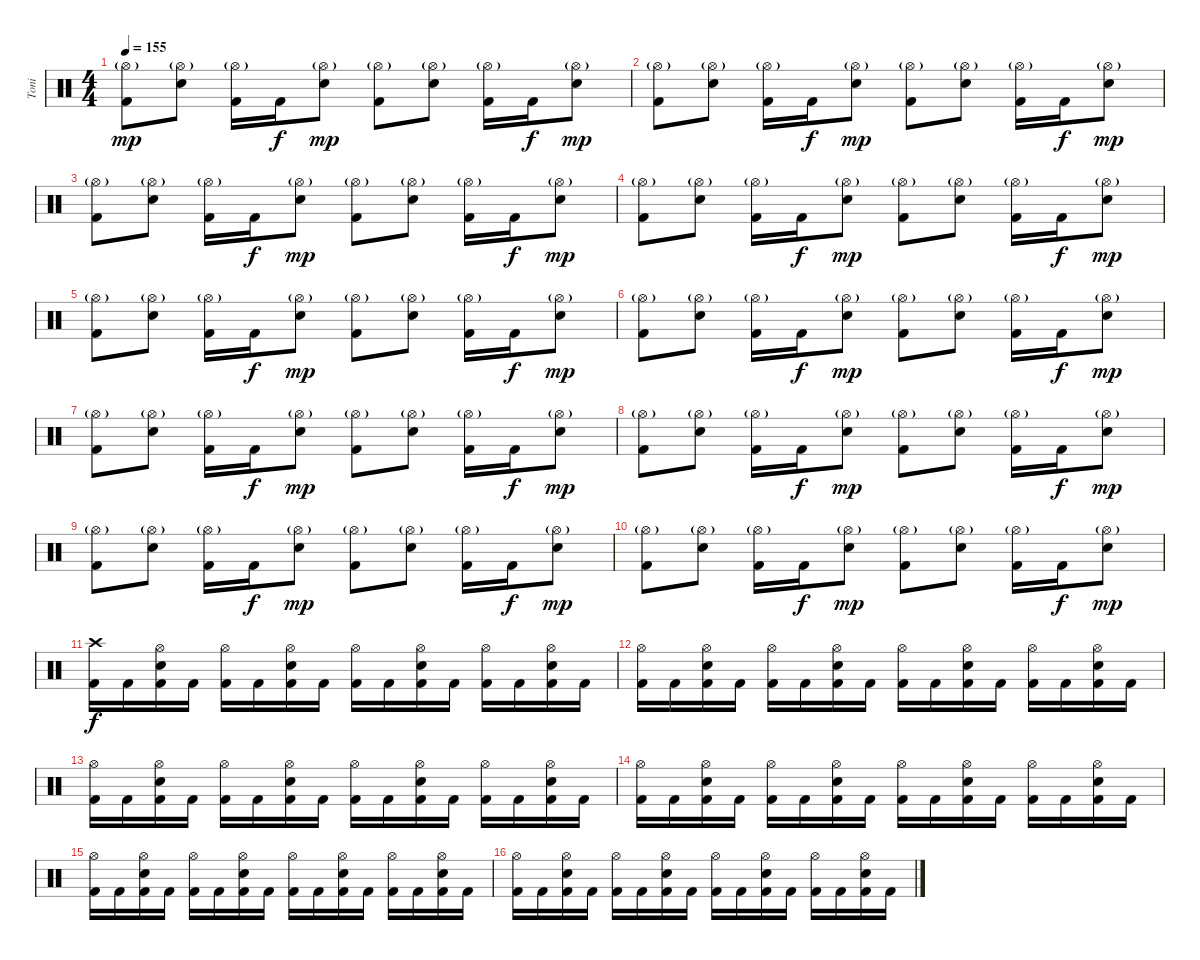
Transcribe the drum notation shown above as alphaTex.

\track ("Toni" "Toni") {instrument percussion}
\staff {score}
\articulation defaults
\ts (4 4)
\tempo 155
\clef neutral
\ks c
("Hi-Hat (open)"{g} "Kick (hit) 2").8{dy mp} ("Hi-Hat (open)"{g} "Electric Snare (hit)").8 ("Hi-Hat (open)"{g} "Kick (hit) 2").16 "Kick (hit) 2".16{dy f} ("Hi-Hat (open)"{g} "Electric Snare (hit)").8{dy mp} ("Hi-Hat (open)"{g} "Kick (hit) 2").8 ("Hi-Hat (open)"{g} "Electric Snare (hit)").8 ("Hi-Hat (open)"{g} "Kick (hit) 2").16 "Kick (hit) 2".16{dy f} ("Hi-Hat (open)"{g} "Electric Snare (hit)").8{dy mp} |
("Hi-Hat (open)"{g} "Kick (hit) 2").8 ("Hi-Hat (open)"{g} "Electric Snare (hit)").8 ("Hi-Hat (open)"{g} "Kick (hit) 2").16 "Kick (hit) 2".16{dy f} ("Hi-Hat (open)"{g} "Electric Snare (hit)").8{dy mp} ("Hi-Hat (open)"{g} "Kick (hit) 2").8 ("Hi-Hat (open)"{g} "Electric Snare (hit)").8 ("Hi-Hat (open)"{g} "Kick (hit) 2").16 "Kick (hit) 2".16{dy f} ("Hi-Hat (open)"{g} "Electric Snare (hit)").8{dy mp} |
("Hi-Hat (open)"{g} "Kick (hit) 2").8 ("Hi-Hat (open)"{g} "Electric Snare (hit)").8 ("Hi-Hat (open)"{g} "Kick (hit) 2").16 "Kick (hit) 2".16{dy f} ("Hi-Hat (open)"{g} "Electric Snare (hit)").8{dy mp} ("Hi-Hat (open)"{g} "Kick (hit) 2").8 ("Hi-Hat (open)"{g} "Electric Snare (hit)").8 ("Hi-Hat (open)"{g} "Kick (hit) 2").16 "Kick (hit) 2".16{dy f} ("Hi-Hat (open)"{g} "Electric Snare (hit)").8{dy mp} |
("Hi-Hat (open)"{g} "Kick (hit) 2").8 ("Hi-Hat (open)"{g} "Electric Snare (hit)").8 ("Hi-Hat (open)"{g} "Kick (hit) 2").16 "Kick (hit) 2".16{dy f} ("Hi-Hat (open)"{g} "Electric Snare (hit)").8{dy mp} ("Hi-Hat (open)"{g} "Kick (hit) 2").8 ("Hi-Hat (open)"{g} "Electric Snare (hit)").8 ("Hi-Hat (open)"{g} "Kick (hit) 2").16 "Kick (hit) 2".16{dy f} ("Hi-Hat (open)"{g} "Electric Snare (hit)").8{dy mp} |
("Hi-Hat (open)"{g} "Kick (hit) 2").8 ("Hi-Hat (open)"{g} "Electric Snare (hit)").8 ("Hi-Hat (open)"{g} "Kick (hit) 2").16 "Kick (hit) 2".16{dy f} ("Hi-Hat (open)"{g} "Electric Snare (hit)").8{dy mp} ("Hi-Hat (open)"{g} "Kick (hit) 2").8 ("Hi-Hat (open)"{g} "Electric Snare (hit)").8 ("Hi-Hat (open)"{g} "Kick (hit) 2").16 "Kick (hit) 2".16{dy f} ("Hi-Hat (open)"{g} "Electric Snare (hit)").8{dy mp} |
("Hi-Hat (open)"{g} "Kick (hit) 2").8 ("Hi-Hat (open)"{g} "Electric Snare (hit)").8 ("Hi-Hat (open)"{g} "Kick (hit) 2").16 "Kick (hit) 2".16{dy f} ("Hi-Hat (open)"{g} "Electric Snare (hit)").8{dy mp} ("Hi-Hat (open)"{g} "Kick (hit) 2").8 ("Hi-Hat (open)"{g} "Electric Snare (hit)").8 ("Hi-Hat (open)"{g} "Kick (hit) 2").16 "Kick (hit) 2".16{dy f} ("Hi-Hat (open)"{g} "Electric Snare (hit)").8{dy mp} |
("Hi-Hat (open)"{g} "Kick (hit) 2").8 ("Hi-Hat (open)"{g} "Electric Snare (hit)").8 ("Hi-Hat (open)"{g} "Kick (hit) 2").16 "Kick (hit) 2".16{dy f} ("Hi-Hat (open)"{g} "Electric Snare (hit)").8{dy mp} ("Hi-Hat (open)"{g} "Kick (hit) 2").8 ("Hi-Hat (open)"{g} "Electric Snare (hit)").8 ("Hi-Hat (open)"{g} "Kick (hit) 2").16 "Kick (hit) 2".16{dy f} ("Hi-Hat (open)"{g} "Electric Snare (hit)").8{dy mp} |
("Hi-Hat (open)"{g} "Kick (hit) 2").8 ("Hi-Hat (open)"{g} "Electric Snare (hit)").8 ("Hi-Hat (open)"{g} "Kick (hit) 2").16 "Kick (hit) 2".16{dy f} ("Hi-Hat (open)"{g} "Electric Snare (hit)").8{dy mp} ("Hi-Hat (open)"{g} "Kick (hit) 2").8 ("Hi-Hat (open)"{g} "Electric Snare (hit)").8 ("Hi-Hat (open)"{g} "Kick (hit) 2").16 "Kick (hit) 2".16{dy f} ("Hi-Hat (open)"{g} "Electric Snare (hit)").8{dy mp} |
("Hi-Hat (open)"{g} "Kick (hit) 2").8 ("Hi-Hat (open)"{g} "Electric Snare (hit)").8 ("Hi-Hat (open)"{g} "Kick (hit) 2").16 "Kick (hit) 2".16{dy f} ("Hi-Hat (open)"{g} "Electric Snare (hit)").8{dy mp} ("Hi-Hat (open)"{g} "Kick (hit) 2").8 ("Hi-Hat (open)"{g} "Electric Snare (hit)").8 ("Hi-Hat (open)"{g} "Kick (hit) 2").16 "Kick (hit) 2".16{dy f} ("Hi-Hat (open)"{g} "Electric Snare (hit)").8{dy mp} |
("Hi-Hat (open)"{g} "Kick (hit) 2").8 ("Hi-Hat (open)"{g} "Electric Snare (hit)").8 ("Hi-Hat (open)"{g} "Kick (hit) 2").16 "Kick (hit) 2".16{dy f} ("Hi-Hat (open)"{g} "Electric Snare (hit)").8{dy mp} ("Hi-Hat (open)"{g} "Kick (hit) 2").8 ("Hi-Hat (open)"{g} "Electric Snare (hit)").8 ("Hi-Hat (open)"{g} "Kick (hit) 2").16 "Kick (hit) 2".16{dy f} ("Hi-Hat (open)"{g} "Electric Snare (hit)").8{dy mp} |
("Crash high (hit)" "Kick (hit) 2").16{dy f} "Kick (hit) 2".16 ("Hi-Hat (open)" "Electric Snare (hit)" "Kick (hit) 2").16 "Kick (hit) 2".16 ("Hi-Hat (open)" "Kick (hit) 2").16 "Kick (hit) 2".16 ("Hi-Hat (open)" "Electric Snare (hit)" "Kick (hit) 2").16 "Kick (hit) 2".16 ("Hi-Hat (open)" "Kick (hit) 2").16 "Kick (hit) 2".16 ("Hi-Hat (open)" "Electric Snare (hit)" "Kick (hit) 2").16 "Kick (hit) 2".16 ("Hi-Hat (open)" "Kick (hit) 2").16 "Kick (hit) 2".16 ("Hi-Hat (open)" "Electric Snare (hit)" "Kick (hit) 2").16 "Kick (hit) 2".16 |
("Hi-Hat (open)" "Kick (hit) 2").16 "Kick (hit) 2".16 ("Hi-Hat (open)" "Electric Snare (hit)" "Kick (hit) 2").16 "Kick (hit) 2".16 ("Hi-Hat (open)" "Kick (hit) 2").16 "Kick (hit) 2".16 ("Hi-Hat (open)" "Electric Snare (hit)" "Kick (hit) 2").16 "Kick (hit) 2".16 ("Hi-Hat (open)" "Kick (hit) 2").16 "Kick (hit) 2".16 ("Hi-Hat (open)" "Electric Snare (hit)" "Kick (hit) 2").16 "Kick (hit) 2".16 ("Hi-Hat (open)" "Kick (hit) 2").16 "Kick (hit) 2".16 ("Hi-Hat (open)" "Electric Snare (hit)" "Kick (hit) 2").16 "Kick (hit) 2".16 |
("Hi-Hat (open)" "Kick (hit) 2").16 "Kick (hit) 2".16 ("Hi-Hat (open)" "Electric Snare (hit)" "Kick (hit) 2").16 "Kick (hit) 2".16 ("Hi-Hat (open)" "Kick (hit) 2").16 "Kick (hit) 2".16 ("Hi-Hat (open)" "Electric Snare (hit)" "Kick (hit) 2").16 "Kick (hit) 2".16 ("Hi-Hat (open)" "Kick (hit) 2").16 "Kick (hit) 2".16 ("Hi-Hat (open)" "Electric Snare (hit)" "Kick (hit) 2").16 "Kick (hit) 2".16 ("Hi-Hat (open)" "Kick (hit) 2").16 "Kick (hit) 2".16 ("Hi-Hat (open)" "Electric Snare (hit)" "Kick (hit) 2").16 "Kick (hit) 2".16 |
("Hi-Hat (open)" "Kick (hit) 2").16 "Kick (hit) 2".16 ("Hi-Hat (open)" "Electric Snare (hit)" "Kick (hit) 2").16 "Kick (hit) 2".16 ("Hi-Hat (open)" "Kick (hit) 2").16 "Kick (hit) 2".16 ("Hi-Hat (open)" "Electric Snare (hit)" "Kick (hit) 2").16 "Kick (hit) 2".16 ("Hi-Hat (open)" "Kick (hit) 2").16 "Kick (hit) 2".16 ("Hi-Hat (open)" "Electric Snare (hit)" "Kick (hit) 2").16 "Kick (hit) 2".16 ("Hi-Hat (open)" "Kick (hit) 2").16 "Kick (hit) 2".16 ("Hi-Hat (open)" "Electric Snare (hit)" "Kick (hit) 2").16 "Kick (hit) 2".16 |
("Hi-Hat (open)" "Kick (hit) 2").16 "Kick (hit) 2".16 ("Hi-Hat (open)" "Electric Snare (hit)" "Kick (hit) 2").16 "Kick (hit) 2".16 ("Hi-Hat (open)" "Kick (hit) 2").16 "Kick (hit) 2".16 ("Hi-Hat (open)" "Electric Snare (hit)" "Kick (hit) 2").16 "Kick (hit) 2".16 ("Hi-Hat (open)" "Kick (hit) 2").16 "Kick (hit) 2".16 ("Hi-Hat (open)" "Electric Snare (hit)" "Kick (hit) 2").16 "Kick (hit) 2".16 ("Hi-Hat (open)" "Kick (hit) 2").16 "Kick (hit) 2".16 ("Hi-Hat (open)" "Electric Snare (hit)" "Kick (hit) 2").16 "Kick (hit) 2".16 |
("Hi-Hat (open)" "Kick (hit) 2").16 "Kick (hit) 2".16 ("Hi-Hat (open)" "Electric Snare (hit)" "Kick (hit) 2").16 "Kick (hit) 2".16 ("Hi-Hat (open)" "Kick (hit) 2").16 "Kick (hit) 2".16 ("Hi-Hat (open)" "Electric Snare (hit)" "Kick (hit) 2").16 "Kick (hit) 2".16 ("Hi-Hat (open)" "Kick (hit) 2").16 "Kick (hit) 2".16 ("Hi-Hat (open)" "Electric Snare (hit)" "Kick (hit) 2").16 "Kick (hit) 2".16 ("Hi-Hat (open)" "Kick (hit) 2").16 "Kick (hit) 2".16 ("Hi-Hat (open)" "Electric Snare (hit)" "Kick (hit) 2").16 "Kick (hit) 2".16
